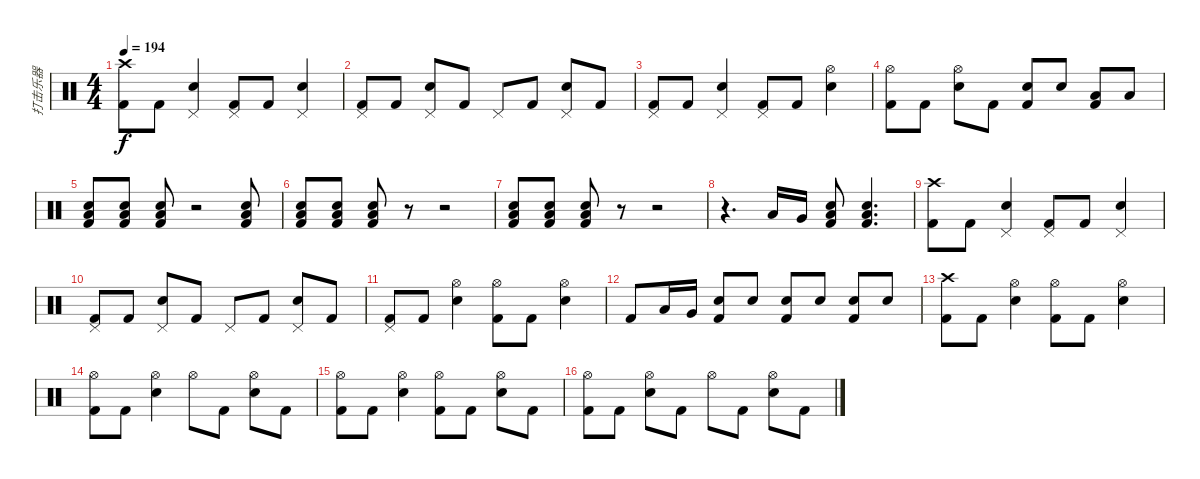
\track ("打击乐器" "打击乐器") {instrument percussion}
\staff {score}
\articulation defaults
\ts (4 4)
\tempo 194
\clef neutral
\ks c
("Crash high (hit)" "Kick (hit) 2").8{dy f} "Kick (hit) 2".8 ("Pedal Hi-Hat (hit)" "Electric Snare (hit)").4 ("Pedal Hi-Hat (hit)" "Kick (hit) 2").8 "Kick (hit) 2".8 ("Pedal Hi-Hat (hit)" "Electric Snare (hit)").4 |
("Pedal Hi-Hat (hit)" "Kick (hit) 2").8 "Kick (hit) 2".8 ("Pedal Hi-Hat (hit)" "Electric Snare (hit)").8 "Kick (hit) 2".8 "Pedal Hi-Hat (hit)".8 "Kick (hit) 2".8 ("Pedal Hi-Hat (hit)" "Electric Snare (hit)").8 "Kick (hit) 2".8 |
("Pedal Hi-Hat (hit)" "Kick (hit) 2").8 "Kick (hit) 2".8 ("Pedal Hi-Hat (hit)" "Electric Snare (hit)").4 ("Pedal Hi-Hat (hit)" "Kick (hit) 2").8 "Kick (hit) 2".8 ("Hi-Hat (open)" "Electric Snare (hit)").4 |
("Hi-Hat (open)" "Kick (hit) 2").8 "Kick (hit) 2".8 ("Hi-Hat (open)" "Electric Snare (hit)").8 "Kick (hit) 2".8 ("Electric Snare (hit)" "Kick (hit) 2").8 "Electric Snare (hit)".8 ("Low Tom (hit)" "Kick (hit) 2").8 "Low Tom (hit)".8 |
("Electric Snare (hit)" "Low Floor Tom (hit)" "Kick (hit) 2").8 ("Electric Snare (hit)" "Low Floor Tom (hit)" "Kick (hit) 2").8 ("Electric Snare (hit)" "Low Floor Tom (hit)" "Kick (hit) 2").8 r.2 ("Electric Snare (hit)" "Low Floor Tom (hit)" "Kick (hit) 2").8 |
("Electric Snare (hit)" "Low Floor Tom (hit)" "Kick (hit) 2").8 ("Electric Snare (hit)" "Low Floor Tom (hit)" "Kick (hit) 2").8 ("Electric Snare (hit)" "Low Floor Tom (hit)" "Kick (hit) 2").8 r.8 r.2 |
("Electric Snare (hit)" "Low Floor Tom (hit)" "Kick (hit) 2").8 ("Electric Snare (hit)" "Low Floor Tom (hit)" "Kick (hit) 2").8 ("Electric Snare (hit)" "Low Floor Tom (hit)" "Kick (hit) 2").8 r.8 r.2 |
r.4{d} "Low Tom (hit)".16 "Very Low Tom (hit)".16 ("Electric Snare (hit)" "Low Floor Tom (hit)" "Kick (hit) 2").8 ("Electric Snare (hit)" "Low Floor Tom (hit)" "Kick (hit) 2").4{d} |
("Crash high (hit)" "Kick (hit) 2").8 "Kick (hit) 2".8 ("Pedal Hi-Hat (hit)" "Electric Snare (hit)").4 ("Pedal Hi-Hat (hit)" "Kick (hit) 2").8 "Kick (hit) 2".8 ("Pedal Hi-Hat (hit)" "Electric Snare (hit)").4 |
("Pedal Hi-Hat (hit)" "Kick (hit) 2").8 "Kick (hit) 2".8 ("Pedal Hi-Hat (hit)" "Electric Snare (hit)").8 "Kick (hit) 2".8 "Pedal Hi-Hat (hit)".8 "Kick (hit) 2".8 ("Pedal Hi-Hat (hit)" "Electric Snare (hit)").8 "Kick (hit) 2".8 |
("Pedal Hi-Hat (hit)" "Kick (hit) 2").8 "Kick (hit) 2".8 ("Hi-Hat (open)" "Electric Snare (hit)").4 ("Hi-Hat (open)" "Kick (hit) 2").8 "Kick (hit) 2".8 ("Hi-Hat (open)" "Electric Snare (hit)").4 |
"Kick (hit) 2".8 "Low Tom (hit)".16 "Very Low Tom (hit)".16 ("Electric Snare (hit)" "Kick (hit) 2").8 "Electric Snare (hit)".8 ("Electric Snare (hit)" "Kick (hit) 2").8 "Electric Snare (hit)".8 ("Electric Snare (hit)" "Kick (hit) 2").8 "Electric Snare (hit)".8 |
("Crash high (hit)" "Kick (hit) 2").8 "Kick (hit) 2".8 ("Hi-Hat (open)" "Electric Snare (hit)").4 ("Hi-Hat (open)" "Kick (hit) 2").8 "Kick (hit) 2".8 ("Hi-Hat (open)" "Electric Snare (hit)").4 |
("Hi-Hat (open)" "Kick (hit) 2").8 "Kick (hit) 2".8 ("Hi-Hat (open)" "Electric Snare (hit)").4 "Hi-Hat (open)".8 "Kick (hit) 2".8 ("Hi-Hat (open)" "Electric Snare (hit)").8 "Kick (hit) 2".8 |
("Hi-Hat (open)" "Kick (hit) 2").8 "Kick (hit) 2".8 ("Hi-Hat (open)" "Electric Snare (hit)").4 ("Hi-Hat (open)" "Kick (hit) 2").8 "Kick (hit) 2".8 ("Hi-Hat (open)" "Electric Snare (hit)").8 "Kick (hit) 2".8 |
("Hi-Hat (open)" "Kick (hit) 2").8 "Kick (hit) 2".8 ("Hi-Hat (open)" "Electric Snare (hit)").8 "Kick (hit) 2".8 "Hi-Hat (open)".8 "Kick (hit) 2".8 ("Hi-Hat (open)" "Electric Snare (hit)").8 "Kick (hit) 2".8
